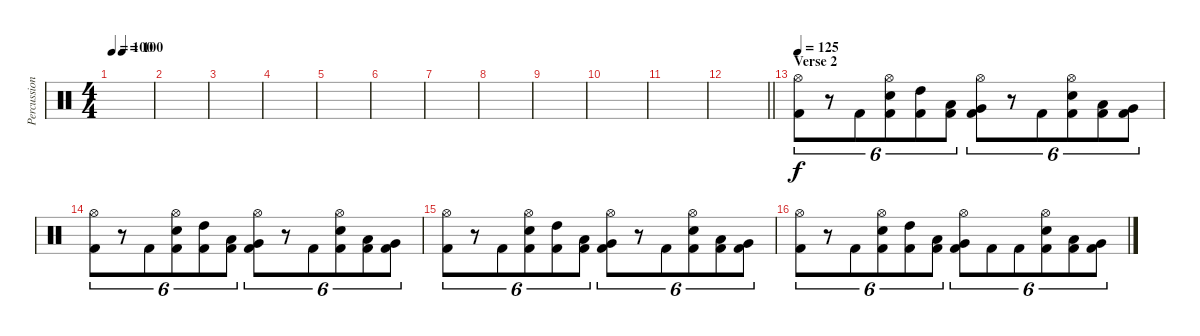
\track ("Percussion" "Percussion") {instrument percussion}
\staff {score}
\articulation defaults
\ts (4 4)
\tempo 100
\tempo (100 0.25)
\clef neutral
\ks c
|
|
|
|
|
|
|
|
|
|
|
\barLineRight lightlight
|
\section ("" "Verse 2")
\tempo 125
("Hi-Hat (open)" "Kick (hit) 2").8{tu (6 4)} r.8{tu (6 4)} "Kick (hit) 2".8{tu (6 4)} ("Hi-Hat (open)" "Snare (hit) 2" "Kick (hit) 2").8{tu (6 4)} ("High Tom (hit)" "Kick (hit) 2").8{tu (6 4)} ("Low Tom (hit)" "Kick (hit) 2").8{tu (6 4)} ("Hi-Hat (open)" "Very Low Tom (hit)" "Kick (hit) 2").8{tu (6 4)} r.8{tu (6 4)} "Kick (hit) 2".8{tu (6 4)} ("Hi-Hat (open)" "Snare (hit) 2" "Kick (hit) 2").8{tu (6 4)} ("Low Tom (hit)" "Kick (hit) 2").8{tu (6 4)} ("Very Low Tom (hit)" "Kick (hit) 2").8{tu (6 4)} |
("Hi-Hat (open)" "Kick (hit) 2").8{tu (6 4)} r.8{tu (6 4)} "Kick (hit) 2".8{tu (6 4)} ("Hi-Hat (open)" "Snare (hit) 2" "Kick (hit) 2").8{tu (6 4)} ("High Tom (hit)" "Kick (hit) 2").8{tu (6 4)} ("Low Tom (hit)" "Kick (hit) 2").8{tu (6 4)} ("Hi-Hat (open)" "Very Low Tom (hit)" "Kick (hit) 2").8{tu (6 4)} r.8{tu (6 4)} "Kick (hit) 2".8{tu (6 4)} ("Hi-Hat (open)" "Snare (hit) 2" "Kick (hit) 2").8{tu (6 4)} ("Low Tom (hit)" "Kick (hit) 2").8{tu (6 4)} ("Very Low Tom (hit)" "Kick (hit) 2").8{tu (6 4)} |
("Hi-Hat (open)" "Kick (hit) 2").8{tu (6 4)} r.8{tu (6 4)} "Kick (hit) 2".8{tu (6 4)} ("Hi-Hat (open)" "Snare (hit) 2" "Kick (hit) 2").8{tu (6 4)} ("High Tom (hit)" "Kick (hit) 2").8{tu (6 4)} ("Low Tom (hit)" "Kick (hit) 2").8{tu (6 4)} ("Hi-Hat (open)" "Very Low Tom (hit)" "Kick (hit) 2").8{tu (6 4)} r.8{tu (6 4)} "Kick (hit) 2".8{tu (6 4)} ("Hi-Hat (open)" "Snare (hit) 2" "Kick (hit) 2").8{tu (6 4)} ("Low Tom (hit)" "Kick (hit) 2").8{tu (6 4)} ("Very Low Tom (hit)" "Kick (hit) 2").8{tu (6 4)} |
("Hi-Hat (open)" "Kick (hit) 2").8{tu (6 4)} r.8{tu (6 4)} "Kick (hit) 2".8{tu (6 4)} ("Hi-Hat (open)" "Snare (hit) 2" "Kick (hit) 2").8{tu (6 4)} ("High Tom (hit)" "Kick (hit) 2").8{tu (6 4)} ("Low Tom (hit)" "Kick (hit) 2").8{tu (6 4)} ("Hi-Hat (open)" "Very Low Tom (hit)" "Kick (hit) 2").8{tu (6 4)} "Kick (hit) 2".8{tu (6 4)} "Kick (hit) 2".8{tu (6 4)} ("Hi-Hat (open)" "Snare (hit) 2" "Kick (hit) 2").8{tu (6 4)} ("Low Tom (hit)" "Kick (hit) 2").8{tu (6 4)} ("Very Low Tom (hit)" "Kick (hit) 2").8{tu (6 4)}
